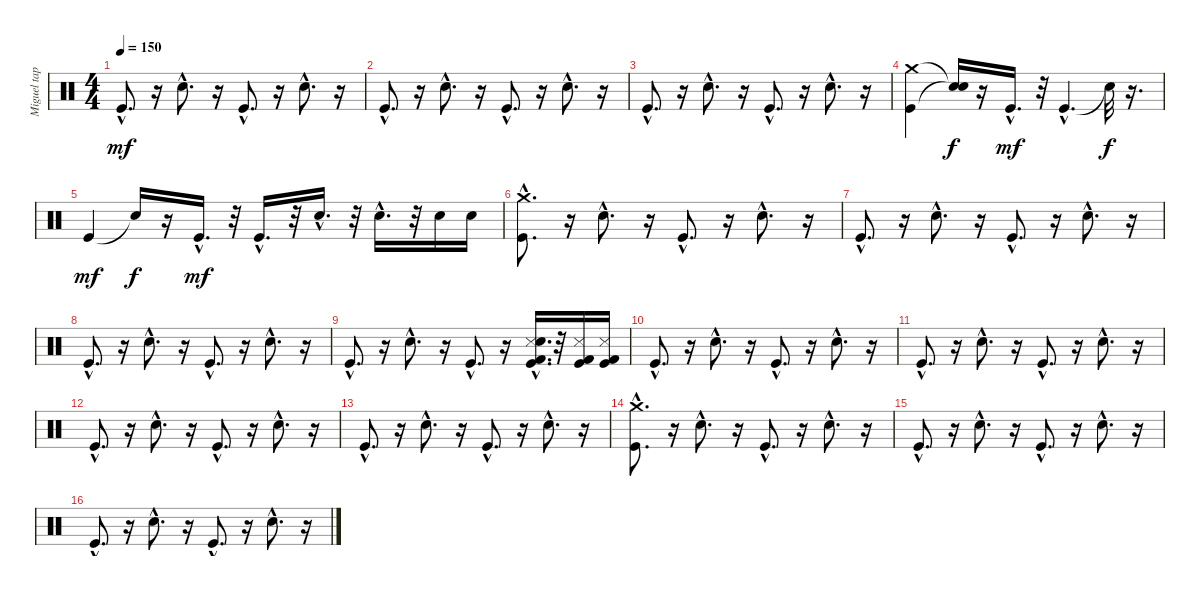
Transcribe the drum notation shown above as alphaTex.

\track ("Miguel tapia" "Miguel tap") {instrument percussion}
\staff {score}
\articulation defaults
\ts (4 4)
\tempo 150
\clef neutral
\ks c "Kick (hit)"{hac}.8{d dy mf}
r.16 "Electric Snare (hit)"{hac}.8{d} r.16 "Kick (hit)"{hac}.8{d} r.16 "Electric Snare (hit)"{hac}.8{d} r.16 |
"Kick (hit)"{hac}.8{d} r.16 "Electric Snare (hit)"{hac}.8{d} r.16 "Kick (hit)"{hac}.8{d} r.16 "Electric Snare (hit)"{hac}.8{d} r.16 |
"Kick (hit)"{hac}.8{d} r.16 "Electric Snare (hit)"{hac}.8{d} r.16 "Kick (hit)"{hac}.8{d} r.16 "Electric Snare (hit)"{hac}.8{d} r.16 |
("Kick (hit)" "Crash medium (hit)").4 ("Snare (hit)"{t} "Snare (hit)"{t}).16{dy f} r.16 "Kick (hit)"{hac}.16{d dy mf} r.32 "Kick (hit)"{hac}.4{d} "Snare (hit)"{t}.32{dy f} r.16{d} |
"Kick (hit)".4{dy mf} "Snare (hit)"{t}.16{dy f} r.16 "Kick (hit)"{hac}.16{d dy mf} r.32 "Kick (hit)"{hac}.16{d} r.32 "Electric Snare (hit)"{hac}.16{d} r.32 "Electric Snare (hit)"{hac}.16{d} r.32 "Electric Snare (hit)".16 "Electric Snare (hit)".16 |
("Crash medium (hit)"{hac} "Kick (hit)"{hac}).8{d} r.16 "Electric Snare (hit)"{hac}.8{d} r.16 "Kick (hit)"{hac}.8{d} r.16 "Electric Snare (hit)"{hac}.8{d} r.16 |
"Kick (hit)"{hac}.8{d} r.16 "Electric Snare (hit)"{hac}.8{d} r.16 "Kick (hit)"{hac}.8{d} r.16 "Electric Snare (hit)"{hac}.8{d} r.16 |
"Kick (hit)"{hac}.8{d} r.16 "Electric Snare (hit)"{hac}.8{d} r.16 "Kick (hit)"{hac}.8{d} r.16 "Electric Snare (hit)"{hac}.8{d} r.16 |
"Kick (hit)"{hac}.8{d} r.16 "Electric Snare (hit)"{hac}.8{d} r.16 "Kick (hit)"{hac}.8{d} r.16 ("Metronome (hit)"{hac} "Electric Snare (hit)"{hac} "Kick (hit) 2"{hac} "Kick (hit)"{hac}).16{d} r.32 ("Metronome (hit)" "Kick (hit)" "Kick (hit) 2").16 ("Kick (hit) 2" "Kick (hit)" "Metronome (hit)").16 |
"Kick (hit)"{hac}.8{d} r.16 "Electric Snare (hit)"{hac}.8{d} r.16 "Kick (hit)"{hac}.8{d} r.16 "Electric Snare (hit)"{hac}.8{d} r.16 |
"Kick (hit)"{hac}.8{d} r.16 "Electric Snare (hit)"{hac}.8{d} r.16 "Kick (hit)"{hac}.8{d} r.16 "Electric Snare (hit)"{hac}.8{d} r.16 |
"Kick (hit)"{hac}.8{d} r.16 "Electric Snare (hit)"{hac}.8{d} r.16 "Kick (hit)"{hac}.8{d} r.16 "Electric Snare (hit)"{hac}.8{d} r.16 |
"Kick (hit)"{hac}.8{d} r.16 "Electric Snare (hit)"{hac}.8{d} r.16 "Kick (hit)"{hac}.8{d} r.16 "Electric Snare (hit)"{hac}.8{d} r.16 |
("Kick (hit)"{hac} "Crash medium (hit)"{hac}).8{d} r.16 "Electric Snare (hit)"{hac}.8{d} r.16 "Kick (hit)"{hac}.8{d} r.16 "Electric Snare (hit)"{hac}.8{d} r.16 |
"Kick (hit)"{hac}.8{d} r.16 "Electric Snare (hit)"{hac}.8{d} r.16 "Kick (hit)"{hac}.8{d} r.16 "Electric Snare (hit)"{hac}.8{d} r.16 |
"Kick (hit)"{hac}.8{d} r.16 "Electric Snare (hit)"{hac}.8{d} r.16 "Kick (hit)"{hac}.8{d} r.16 "Electric Snare (hit)"{hac}.8{d} r.16
